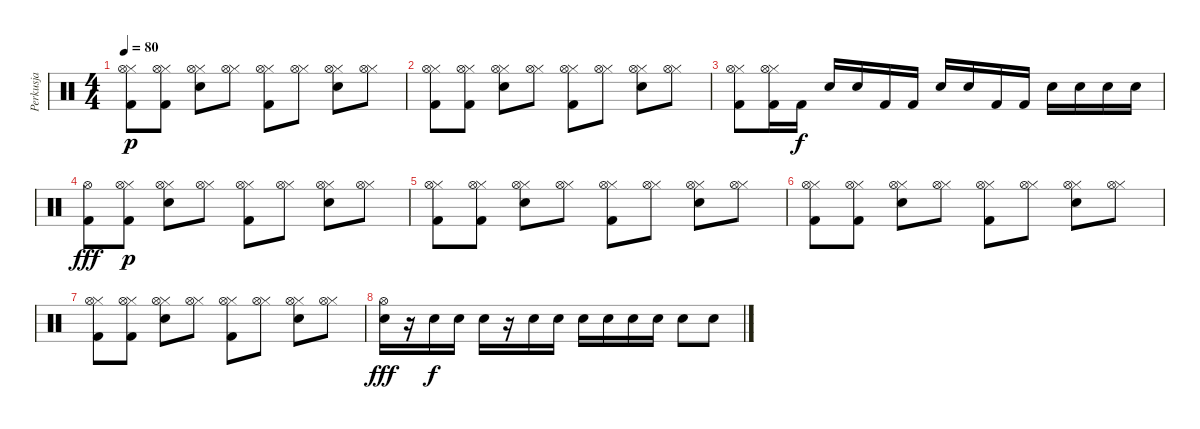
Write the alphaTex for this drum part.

\track ("Perkusja" "Perkusja") {instrument percussion}
\staff {score}
\articulation defaults
\ts (4 4)
\tempo 80
\clef neutral
\ks c
("Kick (hit) 2" "Hi-Hat (closed)" "Hi-Hat (open)").8{dy p} ("Kick (hit) 2" "Hi-Hat (closed)" "Hi-Hat (open)").8 ("Electric Snare (hit)" "Hi-Hat (closed)" "Hi-Hat (open)").8 ("Hi-Hat (closed)" "Hi-Hat (open)").8 ("Kick (hit) 2" "Hi-Hat (closed)" "Hi-Hat (open)").8 ("Hi-Hat (closed)" "Hi-Hat (open)").8 ("Electric Snare (hit)" "Hi-Hat (closed)" "Hi-Hat (open)").8 ("Hi-Hat (closed)" "Hi-Hat (open)").8 |
("Kick (hit) 2" "Hi-Hat (closed)" "Hi-Hat (open)").8 ("Kick (hit) 2" "Hi-Hat (closed)" "Hi-Hat (open)").8 ("Electric Snare (hit)" "Hi-Hat (closed)" "Hi-Hat (open)").8 ("Hi-Hat (closed)" "Hi-Hat (open)").8 ("Kick (hit) 2" "Hi-Hat (closed)" "Hi-Hat (open)").8 ("Hi-Hat (closed)" "Hi-Hat (open)").8 ("Electric Snare (hit)" "Hi-Hat (closed)" "Hi-Hat (open)").8 ("Hi-Hat (closed)" "Hi-Hat (open)").8 |
("Kick (hit) 2" "Hi-Hat (closed)" "Hi-Hat (open)").8 ("Kick (hit) 2" "Hi-Hat (closed)" "Hi-Hat (open)").16 "Kick (hit) 2".16{dy f} "Electric Snare (hit)".16 "Electric Snare (hit)".16 "Kick (hit) 2".16 "Kick (hit) 2".16 "Electric Snare (hit)".16 "Electric Snare (hit)".16 "Kick (hit) 2".16 "Kick (hit) 2".16 "Electric Snare (hit)".16 "Electric Snare (hit)".16 "Electric Snare (hit)".16 "Electric Snare (hit)".16 |
("Kick (hit) 2" "Hi-Hat (open)").8{dy fff} ("Kick (hit) 2" "Hi-Hat (closed)" "Hi-Hat (open)").8{dy p} ("Electric Snare (hit)" "Hi-Hat (closed)" "Hi-Hat (open)").8 ("Hi-Hat (closed)" "Hi-Hat (open)").8 ("Kick (hit) 2" "Hi-Hat (closed)" "Hi-Hat (open)").8 ("Hi-Hat (closed)" "Hi-Hat (open)").8 ("Electric Snare (hit)" "Hi-Hat (closed)" "Hi-Hat (open)").8 ("Hi-Hat (closed)" "Hi-Hat (open)").8 |
("Kick (hit) 2" "Hi-Hat (closed)" "Hi-Hat (open)").8 ("Kick (hit) 2" "Hi-Hat (closed)" "Hi-Hat (open)").8 ("Electric Snare (hit)" "Hi-Hat (closed)" "Hi-Hat (open)").8 ("Hi-Hat (closed)" "Hi-Hat (open)").8 ("Kick (hit) 2" "Hi-Hat (closed)" "Hi-Hat (open)").8 ("Hi-Hat (closed)" "Hi-Hat (open)").8 ("Electric Snare (hit)" "Hi-Hat (closed)" "Hi-Hat (open)").8 ("Hi-Hat (closed)" "Hi-Hat (open)").8 |
("Kick (hit) 2" "Hi-Hat (closed)" "Hi-Hat (open)").8 ("Kick (hit) 2" "Hi-Hat (closed)" "Hi-Hat (open)").8 ("Electric Snare (hit)" "Hi-Hat (closed)" "Hi-Hat (open)").8 ("Hi-Hat (closed)" "Hi-Hat (open)").8 ("Kick (hit) 2" "Hi-Hat (closed)" "Hi-Hat (open)").8 ("Hi-Hat (closed)" "Hi-Hat (open)").8 ("Electric Snare (hit)" "Hi-Hat (closed)" "Hi-Hat (open)").8 ("Hi-Hat (closed)" "Hi-Hat (open)").8 |
("Kick (hit) 2" "Hi-Hat (closed)" "Hi-Hat (open)").8 ("Kick (hit) 2" "Hi-Hat (closed)" "Hi-Hat (open)").8 ("Electric Snare (hit)" "Hi-Hat (closed)" "Hi-Hat (open)").8 ("Hi-Hat (closed)" "Hi-Hat (open)").8 ("Kick (hit) 2" "Hi-Hat (closed)" "Hi-Hat (open)").8 ("Hi-Hat (closed)" "Hi-Hat (open)").8 ("Electric Snare (hit)" "Hi-Hat (closed)" "Hi-Hat (open)").8 ("Hi-Hat (closed)" "Hi-Hat (open)").8 |
("Electric Snare (hit)" "Hi-Hat (open)").16{dy fff} r.16 "Electric Snare (hit)".16{dy f} "Electric Snare (hit)".16 "Electric Snare (hit)".16 r.16 "Electric Snare (hit)".16 "Electric Snare (hit)".16 "Electric Snare (hit)".16 "Electric Snare (hit)".16 "Electric Snare (hit)".16 "Electric Snare (hit)".16 "Electric Snare (hit)".8 "Electric Snare (hit)".8
